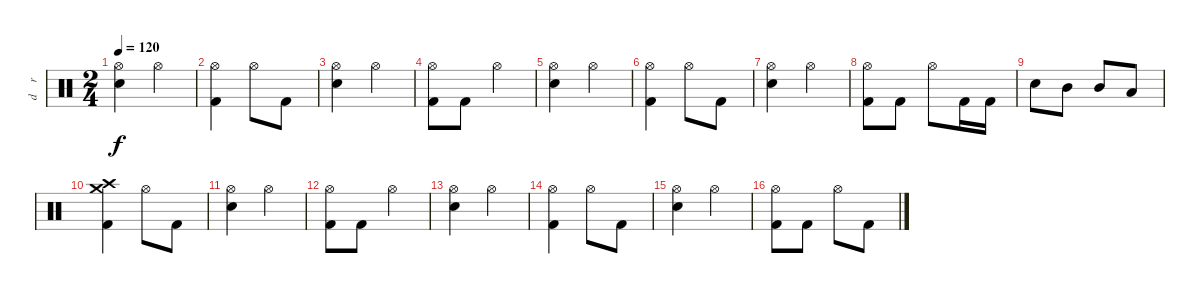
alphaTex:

\track ("d    r     u    m    s" "d    r    ") {instrument percussion}
\staff {score}
\articulation defaults
\ts (2 4)
\tempo 120
\clef neutral
\ks c
("Hi-Hat (open)" "Snare (hit) 2").4{dy f} "Hi-Hat (open)".4 |
("Hi-Hat (open)" "Kick (hit) 2").4 "Hi-Hat (open)".8 "Kick (hit) 2".8 |
("Hi-Hat (open)" "Snare (hit) 2").4 "Hi-Hat (open)".4 |
("Hi-Hat (open)" "Kick (hit) 2").8 "Kick (hit) 2".8 "Hi-Hat (open)".4 |
("Hi-Hat (open)" "Snare (hit) 2").4 "Hi-Hat (open)".4 |
("Hi-Hat (open)" "Kick (hit) 2").4 "Hi-Hat (open)".8 "Kick (hit) 2".8 |
("Hi-Hat (open)" "Snare (hit) 2").4 "Hi-Hat (open)".4 |
("Hi-Hat (open)" "Kick (hit) 2").8 "Kick (hit) 2".8 "Hi-Hat (open)".8 "Kick (hit) 2".16 "Kick (hit) 2".16 |
"Snare (hit) 2".8 "Mid Tom (hit)".8 "Mid Tom (hit)".8 "Low Tom (hit)".8 |
("Crash high (hit)" "Crash medium (hit)" "Kick (hit) 2").4 "Hi-Hat (open)".8 "Kick (hit) 2".8 |
("Hi-Hat (open)" "Snare (hit) 2").4 "Hi-Hat (open)".4 |
("Hi-Hat (open)" "Kick (hit) 2").8 "Kick (hit) 2".8 "Hi-Hat (open)".4 |
("Hi-Hat (open)" "Snare (hit) 2").4 "Hi-Hat (open)".4 |
("Hi-Hat (open)" "Kick (hit) 2").4 "Hi-Hat (open)".8 "Kick (hit) 2".8 |
("Hi-Hat (open)" "Snare (hit) 2").4 "Hi-Hat (open)".4 |
("Hi-Hat (open)" "Kick (hit) 2").8 "Kick (hit) 2".8 "Hi-Hat (open)".8 "Kick (hit) 2".8
